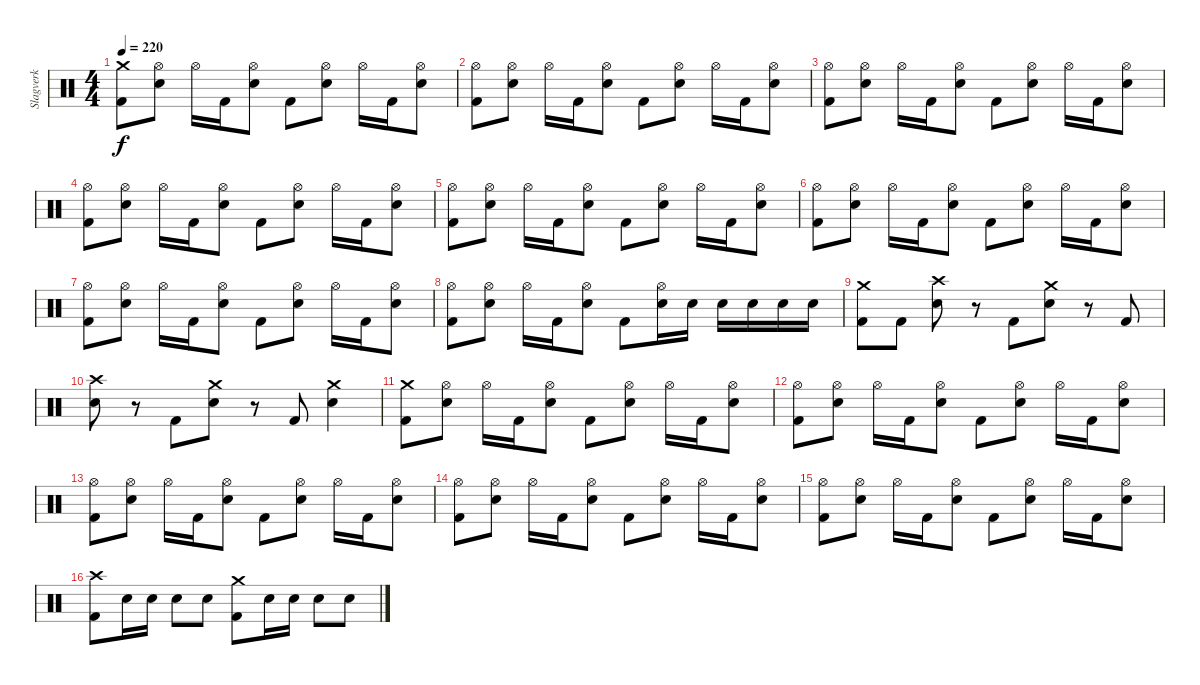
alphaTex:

\track ("Slagverk" "Slagverk") {instrument percussion}
\staff {score}
\articulation defaults
\ts (4 4)
\tempo 220
\clef neutral
\ks c
("Crash medium (hit)" "Kick (hit) 2").8{dy f} ("Electric Snare (hit)" "Hi-Hat (open)").8 "Hi-Hat (open)".16 "Kick (hit) 2".16 ("Electric Snare (hit)" "Hi-Hat (open)").8 "Kick (hit) 2".8 ("Electric Snare (hit)" "Hi-Hat (open)").8 "Hi-Hat (open)".16 "Kick (hit) 2".16 ("Electric Snare (hit)" "Hi-Hat (open)").8 |
("Hi-Hat (open)" "Kick (hit) 2").8 ("Electric Snare (hit)" "Hi-Hat (open)").8 "Hi-Hat (open)".16 "Kick (hit) 2".16 ("Electric Snare (hit)" "Hi-Hat (open)").8 "Kick (hit) 2".8 ("Electric Snare (hit)" "Hi-Hat (open)").8 "Hi-Hat (open)".16 "Kick (hit) 2".16 ("Electric Snare (hit)" "Hi-Hat (open)").8 |
("Hi-Hat (open)" "Kick (hit) 2").8 ("Electric Snare (hit)" "Hi-Hat (open)").8 "Hi-Hat (open)".16 "Kick (hit) 2".16 ("Electric Snare (hit)" "Hi-Hat (open)").8 "Kick (hit) 2".8 ("Electric Snare (hit)" "Hi-Hat (open)").8 "Hi-Hat (open)".16 "Kick (hit) 2".16 ("Electric Snare (hit)" "Hi-Hat (open)").8 |
("Hi-Hat (open)" "Kick (hit) 2").8 ("Electric Snare (hit)" "Hi-Hat (open)").8 "Hi-Hat (open)".16 "Kick (hit) 2".16 ("Electric Snare (hit)" "Hi-Hat (open)").8 "Kick (hit) 2".8 ("Electric Snare (hit)" "Hi-Hat (open)").8 "Hi-Hat (open)".16 "Kick (hit) 2".16 ("Electric Snare (hit)" "Hi-Hat (open)").8 |
("Hi-Hat (open)" "Kick (hit) 2").8 ("Electric Snare (hit)" "Hi-Hat (open)").8 "Hi-Hat (open)".16 "Kick (hit) 2".16 ("Electric Snare (hit)" "Hi-Hat (open)").8 "Kick (hit) 2".8 ("Electric Snare (hit)" "Hi-Hat (open)").8 "Hi-Hat (open)".16 "Kick (hit) 2".16 ("Electric Snare (hit)" "Hi-Hat (open)").8 |
("Hi-Hat (open)" "Kick (hit) 2").8 ("Electric Snare (hit)" "Hi-Hat (open)").8 "Hi-Hat (open)".16 "Kick (hit) 2".16 ("Electric Snare (hit)" "Hi-Hat (open)").8 "Kick (hit) 2".8 ("Electric Snare (hit)" "Hi-Hat (open)").8 "Hi-Hat (open)".16 "Kick (hit) 2".16 ("Electric Snare (hit)" "Hi-Hat (open)").8 |
("Hi-Hat (open)" "Kick (hit) 2").8 ("Electric Snare (hit)" "Hi-Hat (open)").8 "Hi-Hat (open)".16 "Kick (hit) 2".16 ("Electric Snare (hit)" "Hi-Hat (open)").8 "Kick (hit) 2".8 ("Electric Snare (hit)" "Hi-Hat (open)").8 "Hi-Hat (open)".16 "Kick (hit) 2".16 ("Electric Snare (hit)" "Hi-Hat (open)").8 |
("Hi-Hat (open)" "Kick (hit) 2").8 ("Electric Snare (hit)" "Hi-Hat (open)").8 "Hi-Hat (open)".16 "Kick (hit) 2".16 ("Electric Snare (hit)" "Hi-Hat (open)").8 "Kick (hit) 2".8 ("Electric Snare (hit)" "Hi-Hat (open)").16 "Electric Snare (hit)".16 "Electric Snare (hit)".16 "Electric Snare (hit)".16 "Electric Snare (hit)".16 "Electric Snare (hit)".16 |
("Crash medium (hit)" "Kick (hit) 2").8 "Kick (hit) 2".8 ("Crash high (hit)" "Electric Snare (hit)").8 r.8 "Kick (hit) 2".8 ("Crash medium (hit)" "Electric Snare (hit)").8 r.8 "Kick (hit) 2".8 |
("Crash high (hit)" "Electric Snare (hit)").8 r.8 "Kick (hit) 2".8 ("Crash medium (hit)" "Electric Snare (hit)").8 r.8 "Kick (hit) 2".8 ("Crash medium (hit)" "Electric Snare (hit)").4 |
("Crash medium (hit)" "Kick (hit) 2").8 ("Electric Snare (hit)" "Hi-Hat (open)").8 "Hi-Hat (open)".16 "Kick (hit) 2".16 ("Electric Snare (hit)" "Hi-Hat (open)").8 "Kick (hit) 2".8 ("Electric Snare (hit)" "Hi-Hat (open)").8 "Hi-Hat (open)".16 "Kick (hit) 2".16 ("Electric Snare (hit)" "Hi-Hat (open)").8 |
("Hi-Hat (open)" "Kick (hit) 2").8 ("Electric Snare (hit)" "Hi-Hat (open)").8 "Hi-Hat (open)".16 "Kick (hit) 2".16 ("Electric Snare (hit)" "Hi-Hat (open)").8 "Kick (hit) 2".8 ("Electric Snare (hit)" "Hi-Hat (open)").8 "Hi-Hat (open)".16 "Kick (hit) 2".16 ("Electric Snare (hit)" "Hi-Hat (open)").8 |
("Hi-Hat (open)" "Kick (hit) 2").8 ("Electric Snare (hit)" "Hi-Hat (open)").8 "Hi-Hat (open)".16 "Kick (hit) 2".16 ("Electric Snare (hit)" "Hi-Hat (open)").8 "Kick (hit) 2".8 ("Electric Snare (hit)" "Hi-Hat (open)").8 "Hi-Hat (open)".16 "Kick (hit) 2".16 ("Electric Snare (hit)" "Hi-Hat (open)").8 |
("Hi-Hat (open)" "Kick (hit) 2").8 ("Electric Snare (hit)" "Hi-Hat (open)").8 "Hi-Hat (open)".16 "Kick (hit) 2".16 ("Electric Snare (hit)" "Hi-Hat (open)").8 "Kick (hit) 2".8 ("Electric Snare (hit)" "Hi-Hat (open)").8 "Hi-Hat (open)".16 "Kick (hit) 2".16 ("Electric Snare (hit)" "Hi-Hat (open)").8 |
("Hi-Hat (open)" "Kick (hit) 2").8 ("Electric Snare (hit)" "Hi-Hat (open)").8 "Hi-Hat (open)".16 "Kick (hit) 2".16 ("Electric Snare (hit)" "Hi-Hat (open)").8 "Kick (hit) 2".8 ("Electric Snare (hit)" "Hi-Hat (open)").8 "Hi-Hat (open)".16 "Kick (hit) 2".16 ("Electric Snare (hit)" "Hi-Hat (open)").8 |
("Crash high (hit)" "Kick (hit) 2").8 "Electric Snare (hit)".16 "Electric Snare (hit)".16 "Electric Snare (hit)".8 "Electric Snare (hit)".8 ("Crash medium (hit)" "Kick (hit) 2").8 "Electric Snare (hit)".16 "Electric Snare (hit)".16 "Electric Snare (hit)".8 "Electric Snare (hit)".8
